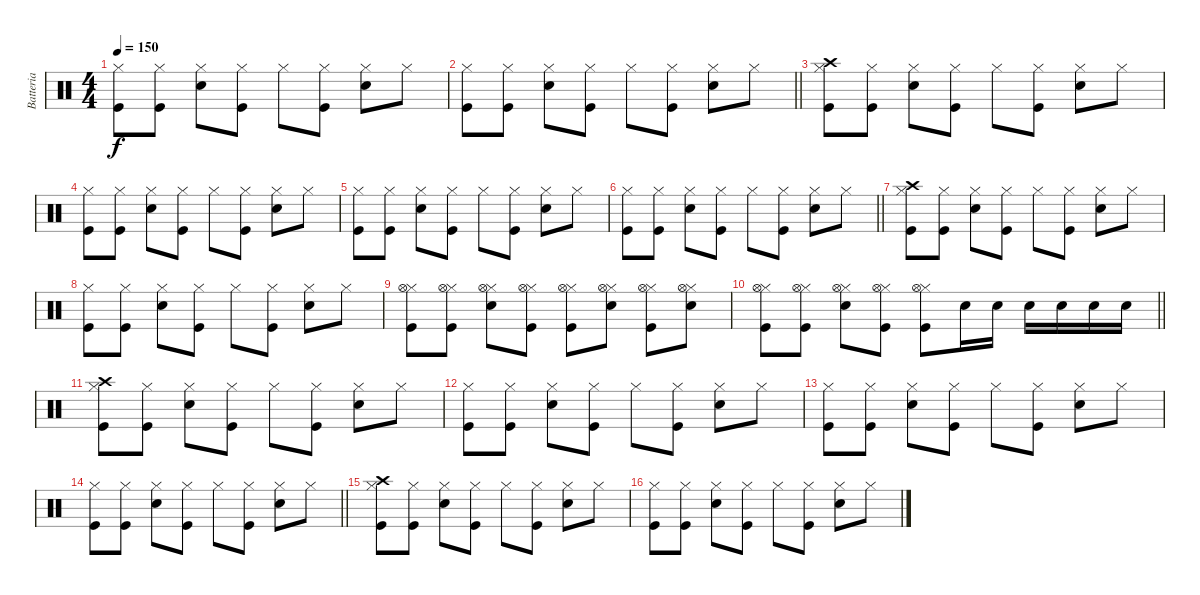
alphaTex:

\track ("Batteria" "Batteria") {instrument percussion}
\staff {score}
\articulation defaults
\ts (4 4)
\tempo 150
\clef neutral
\ks c
("Hi-Hat (closed)" "Kick (hit)").8{dy f} ("Hi-Hat (closed)" "Kick (hit)").8 ("Hi-Hat (closed)" "Snare (hit) 2").8 ("Hi-Hat (closed)" "Kick (hit)").8 "Hi-Hat (closed)".8 ("Hi-Hat (closed)" "Kick (hit)").8 ("Hi-Hat (closed)" "Snare (hit) 2").8 "Hi-Hat (closed)".8 |
\barLineRight lightlight
("Hi-Hat (closed)" "Kick (hit)").8 ("Hi-Hat (closed)" "Kick (hit)").8 ("Hi-Hat (closed)" "Snare (hit) 2").8 ("Hi-Hat (closed)" "Kick (hit)").8 "Hi-Hat (closed)".8 ("Hi-Hat (closed)" "Kick (hit)").8 ("Hi-Hat (closed)" "Snare (hit) 2").8 "Hi-Hat (closed)".8 |
("Hi-Hat (closed)" "Crash high (hit)" "Kick (hit)").8 ("Hi-Hat (closed)" "Kick (hit)").8 ("Hi-Hat (closed)" "Snare (hit) 2").8 ("Hi-Hat (closed)" "Kick (hit)").8 "Hi-Hat (closed)".8 ("Hi-Hat (closed)" "Kick (hit)").8 ("Hi-Hat (closed)" "Snare (hit) 2").8 "Hi-Hat (closed)".8 |
("Hi-Hat (closed)" "Kick (hit)").8 ("Hi-Hat (closed)" "Kick (hit)").8 ("Hi-Hat (closed)" "Snare (hit) 2").8 ("Hi-Hat (closed)" "Kick (hit)").8 "Hi-Hat (closed)".8 ("Hi-Hat (closed)" "Kick (hit)").8 ("Hi-Hat (closed)" "Snare (hit) 2").8 "Hi-Hat (closed)".8 |
("Hi-Hat (closed)" "Kick (hit)").8 ("Hi-Hat (closed)" "Kick (hit)").8 ("Hi-Hat (closed)" "Snare (hit) 2").8 ("Hi-Hat (closed)" "Kick (hit)").8 "Hi-Hat (closed)".8 ("Hi-Hat (closed)" "Kick (hit)").8 ("Hi-Hat (closed)" "Snare (hit) 2").8 "Hi-Hat (closed)".8 |
\barLineRight lightlight
("Hi-Hat (closed)" "Kick (hit)").8 ("Hi-Hat (closed)" "Kick (hit)").8 ("Hi-Hat (closed)" "Snare (hit) 2").8 ("Hi-Hat (closed)" "Kick (hit)").8 "Hi-Hat (closed)".8 ("Hi-Hat (closed)" "Kick (hit)").8 ("Hi-Hat (closed)" "Snare (hit) 2").8 "Hi-Hat (closed)".8 |
("Hi-Hat (closed)" "Crash high (hit)" "Kick (hit)").8 ("Hi-Hat (closed)" "Kick (hit)").8 ("Hi-Hat (closed)" "Snare (hit) 2").8 ("Hi-Hat (closed)" "Kick (hit)").8 "Hi-Hat (closed)".8 ("Hi-Hat (closed)" "Kick (hit)").8 ("Hi-Hat (closed)" "Snare (hit) 2").8 "Hi-Hat (closed)".8 |
("Hi-Hat (closed)" "Kick (hit)").8 ("Hi-Hat (closed)" "Kick (hit)").8 ("Hi-Hat (closed)" "Snare (hit) 2").8 ("Hi-Hat (closed)" "Kick (hit)").8 "Hi-Hat (closed)".8 ("Hi-Hat (closed)" "Kick (hit)").8 ("Hi-Hat (closed)" "Snare (hit) 2").8 "Hi-Hat (closed)".8 |
("Hi-Hat (closed)" "Hi-Hat (open)" "Kick (hit)").8 ("Hi-Hat (closed)" "Hi-Hat (open)" "Kick (hit)").8 ("Hi-Hat (closed)" "Snare (hit) 2" "Hi-Hat (open)").8 ("Hi-Hat (closed)" "Hi-Hat (open)" "Kick (hit)").8 ("Hi-Hat (closed)" "Hi-Hat (open)" "Kick (hit)").8 ("Hi-Hat (closed)" "Snare (hit) 2" "Hi-Hat (open)").8 ("Hi-Hat (closed)" "Hi-Hat (open)" "Kick (hit)").8 ("Hi-Hat (closed)" "Snare (hit) 2" "Hi-Hat (open)").8 |
\barLineRight lightlight
("Hi-Hat (closed)" "Hi-Hat (open)" "Kick (hit)").8 ("Hi-Hat (closed)" "Hi-Hat (open)" "Kick (hit)").8 ("Hi-Hat (closed)" "Snare (hit) 2" "Hi-Hat (open)").8 ("Hi-Hat (closed)" "Hi-Hat (open)" "Kick (hit)").8 ("Hi-Hat (closed)" "Hi-Hat (open)" "Kick (hit)").8 "Snare (hit) 2".16 "Snare (hit) 2".16 "Snare (hit) 2".16 "Snare (hit) 2".16 "Snare (hit) 2".16 "Snare (hit) 2".16 |
("Hi-Hat (closed)" "Crash high (hit)" "Kick (hit)").8 ("Hi-Hat (closed)" "Kick (hit)").8 ("Hi-Hat (closed)" "Snare (hit) 2").8 ("Hi-Hat (closed)" "Kick (hit)").8 "Hi-Hat (closed)".8 ("Hi-Hat (closed)" "Kick (hit)").8 ("Hi-Hat (closed)" "Snare (hit) 2").8 "Hi-Hat (closed)".8 |
("Hi-Hat (closed)" "Kick (hit)").8 ("Hi-Hat (closed)" "Kick (hit)").8 ("Hi-Hat (closed)" "Snare (hit) 2").8 ("Hi-Hat (closed)" "Kick (hit)").8 "Hi-Hat (closed)".8 ("Hi-Hat (closed)" "Kick (hit)").8 ("Hi-Hat (closed)" "Snare (hit) 2").8 "Hi-Hat (closed)".8 |
("Hi-Hat (closed)" "Kick (hit)").8 ("Hi-Hat (closed)" "Kick (hit)").8 ("Hi-Hat (closed)" "Snare (hit) 2").8 ("Hi-Hat (closed)" "Kick (hit)").8 "Hi-Hat (closed)".8 ("Hi-Hat (closed)" "Kick (hit)").8 ("Hi-Hat (closed)" "Snare (hit) 2").8 "Hi-Hat (closed)".8 |
\barLineRight lightlight
("Hi-Hat (closed)" "Kick (hit)").8 ("Hi-Hat (closed)" "Kick (hit)").8 ("Hi-Hat (closed)" "Snare (hit) 2").8 ("Hi-Hat (closed)" "Kick (hit)").8 "Hi-Hat (closed)".8 ("Hi-Hat (closed)" "Kick (hit)").8 ("Hi-Hat (closed)" "Snare (hit) 2").8 "Hi-Hat (closed)".8 |
("Hi-Hat (closed)" "Crash high (hit)" "Kick (hit)").8 ("Hi-Hat (closed)" "Kick (hit)").8 ("Hi-Hat (closed)" "Snare (hit) 2").8 ("Hi-Hat (closed)" "Kick (hit)").8 "Hi-Hat (closed)".8 ("Hi-Hat (closed)" "Kick (hit)").8 ("Hi-Hat (closed)" "Snare (hit) 2").8 "Hi-Hat (closed)".8 |
("Hi-Hat (closed)" "Kick (hit)").8 ("Hi-Hat (closed)" "Kick (hit)").8 ("Hi-Hat (closed)" "Snare (hit) 2").8 ("Hi-Hat (closed)" "Kick (hit)").8 "Hi-Hat (closed)".8 ("Hi-Hat (closed)" "Kick (hit)").8 ("Hi-Hat (closed)" "Snare (hit) 2").8 "Hi-Hat (closed)".8
